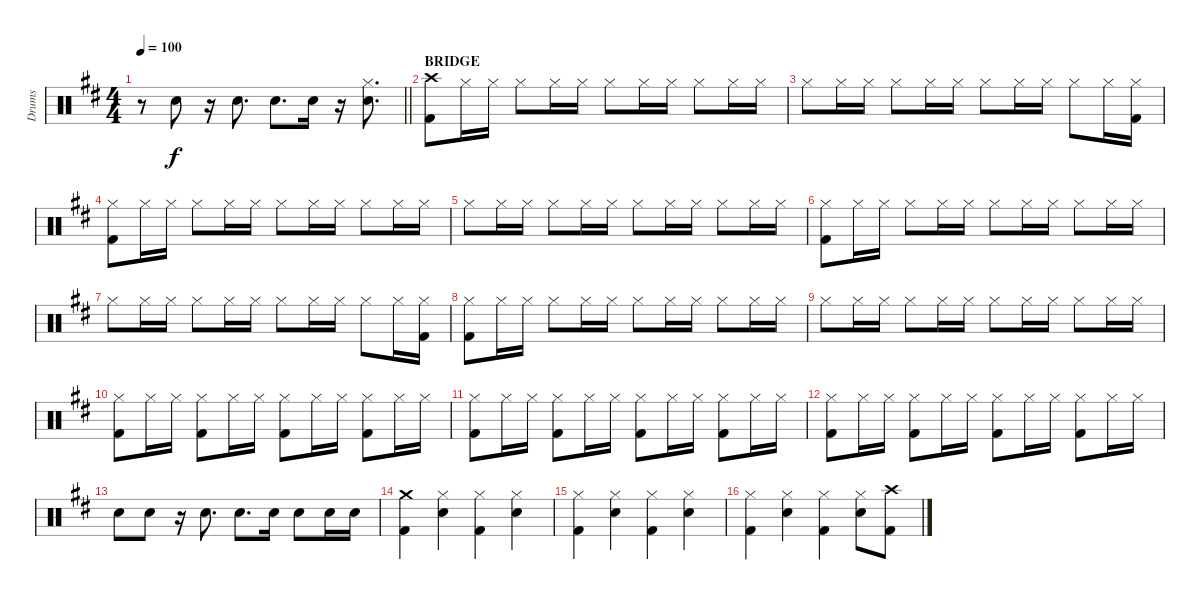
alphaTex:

\track ("Drums" "Drums") {instrument percussion}
\staff {score}
\articulation defaults
\ts (4 4)
\tempo 100
\clef neutral
\barLineRight lightlight
\ks d
r.8{dy f} "Electric Snare (hit)".8 r.16 "Electric Snare (hit)".8{d} "Electric Snare (hit)".8{d} "Electric Snare (hit)".16 r.16 ("Hi-Hat (closed)" "Electric Snare (hit)").8{d} |
\section ("" "BRIDGE")
("Crash high (hit)" "Kick (hit) 2").8 "Hi-Hat (closed)".16 "Hi-Hat (closed)".16 "Hi-Hat (closed)".8 "Hi-Hat (closed)".16 "Hi-Hat (closed)".16 "Hi-Hat (closed)".8 "Hi-Hat (closed)".16 "Hi-Hat (closed)".16 "Hi-Hat (closed)".8 "Hi-Hat (closed)".16 "Hi-Hat (closed)".16 |
"Hi-Hat (closed)".8 "Hi-Hat (closed)".16 "Hi-Hat (closed)".16 "Hi-Hat (closed)".8 "Hi-Hat (closed)".16 "Hi-Hat (closed)".16 "Hi-Hat (closed)".8 "Hi-Hat (closed)".16 "Hi-Hat (closed)".16 "Hi-Hat (closed)".8 "Hi-Hat (closed)".16 ("Hi-Hat (closed)" "Kick (hit) 2").16 |
("Hi-Hat (closed)" "Kick (hit) 2").8 "Hi-Hat (closed)".16 "Hi-Hat (closed)".16 "Hi-Hat (closed)".8 "Hi-Hat (closed)".16 "Hi-Hat (closed)".16 "Hi-Hat (closed)".8 "Hi-Hat (closed)".16 "Hi-Hat (closed)".16 "Hi-Hat (closed)".8 "Hi-Hat (closed)".16 "Hi-Hat (closed)".16 |
"Hi-Hat (closed)".8 "Hi-Hat (closed)".16 "Hi-Hat (closed)".16 "Hi-Hat (closed)".8 "Hi-Hat (closed)".16 "Hi-Hat (closed)".16 "Hi-Hat (closed)".8 "Hi-Hat (closed)".16 "Hi-Hat (closed)".16 "Hi-Hat (closed)".8 "Hi-Hat (closed)".16 "Hi-Hat (closed)".16 |
("Hi-Hat (closed)" "Kick (hit) 2").8 "Hi-Hat (closed)".16 "Hi-Hat (closed)".16 "Hi-Hat (closed)".8 "Hi-Hat (closed)".16 "Hi-Hat (closed)".16 "Hi-Hat (closed)".8 "Hi-Hat (closed)".16 "Hi-Hat (closed)".16 "Hi-Hat (closed)".8 "Hi-Hat (closed)".16 "Hi-Hat (closed)".16 |
"Hi-Hat (closed)".8 "Hi-Hat (closed)".16 "Hi-Hat (closed)".16 "Hi-Hat (closed)".8 "Hi-Hat (closed)".16 "Hi-Hat (closed)".16 "Hi-Hat (closed)".8 "Hi-Hat (closed)".16 "Hi-Hat (closed)".16 "Hi-Hat (closed)".8 "Hi-Hat (closed)".16 ("Hi-Hat (closed)" "Kick (hit) 2").16 |
("Hi-Hat (closed)" "Kick (hit) 2").8 "Hi-Hat (closed)".16 "Hi-Hat (closed)".16 "Hi-Hat (closed)".8 "Hi-Hat (closed)".16 "Hi-Hat (closed)".16 "Hi-Hat (closed)".8 "Hi-Hat (closed)".16 "Hi-Hat (closed)".16 "Hi-Hat (closed)".8 "Hi-Hat (closed)".16 "Hi-Hat (closed)".16 |
"Hi-Hat (closed)".8 "Hi-Hat (closed)".16 "Hi-Hat (closed)".16 "Hi-Hat (closed)".8 "Hi-Hat (closed)".16 "Hi-Hat (closed)".16 "Hi-Hat (closed)".8 "Hi-Hat (closed)".16 "Hi-Hat (closed)".16 "Hi-Hat (closed)".8 "Hi-Hat (closed)".16 "Hi-Hat (closed)".16 |
("Hi-Hat (closed)" "Kick (hit) 2").8 "Hi-Hat (closed)".16 "Hi-Hat (closed)".16 ("Hi-Hat (closed)" "Kick (hit) 2").8 "Hi-Hat (closed)".16 "Hi-Hat (closed)".16 ("Hi-Hat (closed)" "Kick (hit) 2").8 "Hi-Hat (closed)".16 "Hi-Hat (closed)".16 ("Hi-Hat (closed)" "Kick (hit) 2").8 "Hi-Hat (closed)".16 "Hi-Hat (closed)".16 |
("Hi-Hat (closed)" "Kick (hit) 2").8 "Hi-Hat (closed)".16 "Hi-Hat (closed)".16 ("Hi-Hat (closed)" "Kick (hit) 2").8 "Hi-Hat (closed)".16 "Hi-Hat (closed)".16 ("Hi-Hat (closed)" "Kick (hit) 2").8 "Hi-Hat (closed)".16 "Hi-Hat (closed)".16 ("Hi-Hat (closed)" "Kick (hit) 2").8 "Hi-Hat (closed)".16 "Hi-Hat (closed)".16 |
("Hi-Hat (closed)" "Kick (hit) 2").8 "Hi-Hat (closed)".16 "Hi-Hat (closed)".16 ("Hi-Hat (closed)" "Kick (hit) 2").8 "Hi-Hat (closed)".16 "Hi-Hat (closed)".16 ("Hi-Hat (closed)" "Kick (hit) 2").8 "Hi-Hat (closed)".16 "Hi-Hat (closed)".16 ("Hi-Hat (closed)" "Kick (hit) 2").8 "Hi-Hat (closed)".16 "Hi-Hat (closed)".16 |
"Electric Snare (hit)".8 "Electric Snare (hit)".8 r.16 "Electric Snare (hit)".8{d} "Electric Snare (hit)".8{d} "Electric Snare (hit)".16 "Electric Snare (hit)".8 "Electric Snare (hit)".16 "Electric Snare (hit)".16 |
("Crash medium (hit)" "Kick (hit) 2").4{beam merge} ("Hi-Hat (closed)" "Electric Snare (hit)").4 ("Hi-Hat (closed)" "Kick (hit) 2").4{beam merge} ("Hi-Hat (closed)" "Electric Snare (hit)").4 |
("Hi-Hat (closed)" "Kick (hit) 2").4{beam merge} ("Hi-Hat (closed)" "Electric Snare (hit)").4 ("Hi-Hat (closed)" "Kick (hit) 2").4{beam merge} ("Hi-Hat (closed)" "Electric Snare (hit)").4 |
("Hi-Hat (closed)" "Kick (hit) 2").4 ("Hi-Hat (closed)" "Electric Snare (hit)").4 ("Hi-Hat (closed)" "Kick (hit) 2").4 ("Hi-Hat (closed)" "Electric Snare (hit)").8 ("Crash high (hit)" "Kick (hit) 2").8
